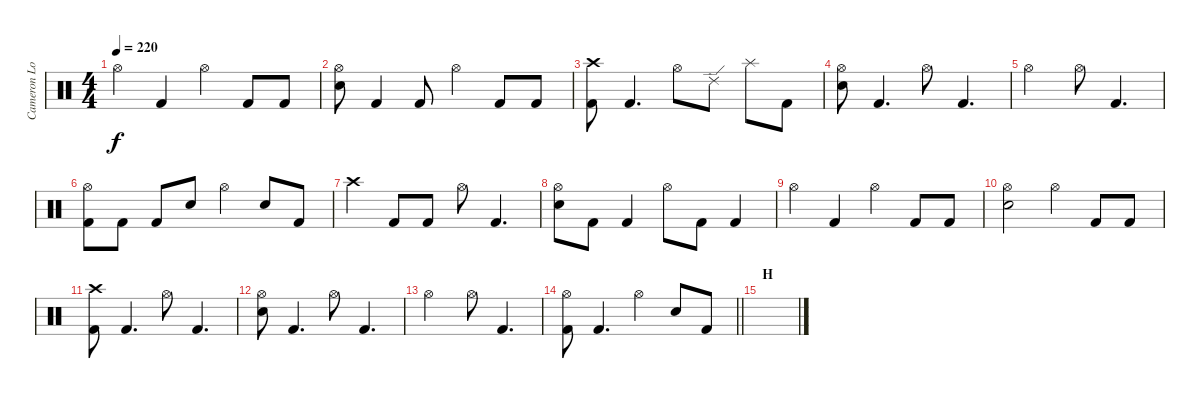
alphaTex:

\track ("Cameron Losch - Drums" "Cameron Lo") {instrument percussion}
\staff {score}
\articulation defaults
\ts (4 4)
\tempo 220
\clef neutral
\ks c "Hi-Hat (open)".4{dy f} "Kick (hit) 2".4 "Hi-Hat (open)".4 "Kick (hit) 2".8 "Kick (hit) 2".8
|
("Electric Snare (hit)" "Hi-Hat (open)").8 "Kick (hit) 2".4 "Kick (hit) 2".8 "Hi-Hat (open)".4 "Kick (hit) 2".8 "Kick (hit) 2".8 |
("Kick (hit) 2" "Crash high (hit)").8 "Kick (hit) 2".4{d} "Hi-Hat (open)".8 "Ride (edge) 2".8 "Splash (hit)".8 "Kick (hit) 2".8 |
("Electric Snare (hit)" "Hi-Hat (open)").8 "Kick (hit) 2".4{d} "Hi-Hat (open)".8 "Kick (hit) 2".4{d} |
"Hi-Hat (open)".2 "Hi-Hat (open)".8 "Kick (hit) 2".4{d} |
("Kick (hit) 2" "Hi-Hat (open)").8 "Kick (hit) 2".8 "Kick (hit) 2".8 "Electric Snare (hit)".8 "Hi-Hat (open)".4 "Electric Snare (hit)".8 "Kick (hit) 2".8 |
"Crash high (hit)".4 "Kick (hit) 2".8 "Kick (hit) 2".8 "Hi-Hat (open)".8 "Kick (hit) 2".4{d} |
("Electric Snare (hit)" "Hi-Hat (open)").8 "Kick (hit) 2".8 "Kick (hit) 2".4 "Hi-Hat (open)".8 "Kick (hit) 2".8 "Kick (hit) 2".4 |
"Hi-Hat (open)".4 "Kick (hit) 2".4 "Hi-Hat (open)".4 "Kick (hit) 2".8 "Kick (hit) 2".8 |
("Electric Snare (hit)" "Hi-Hat (open)").2 "Hi-Hat (open)".4 "Kick (hit) 2".8 "Kick (hit) 2".8 |
("Kick (hit) 2" "Crash high (hit)").8 "Kick (hit) 2".4{d} "Hi-Hat (open)".8 "Kick (hit) 2".4{d} |
("Electric Snare (hit)" "Hi-Hat (open)").8 "Kick (hit) 2".4{d} "Hi-Hat (open)".8 "Kick (hit) 2".4{d} |
"Hi-Hat (open)".2 "Hi-Hat (open)".8 "Kick (hit) 2".4{d} |
\barLineRight lightlight
("Kick (hit) 2" "Hi-Hat (open)").8 "Kick (hit) 2".4{d} "Hi-Hat (open)".4 "Electric Snare (hit)".8 "Kick (hit) 2".8 |
\section ("" "H")
